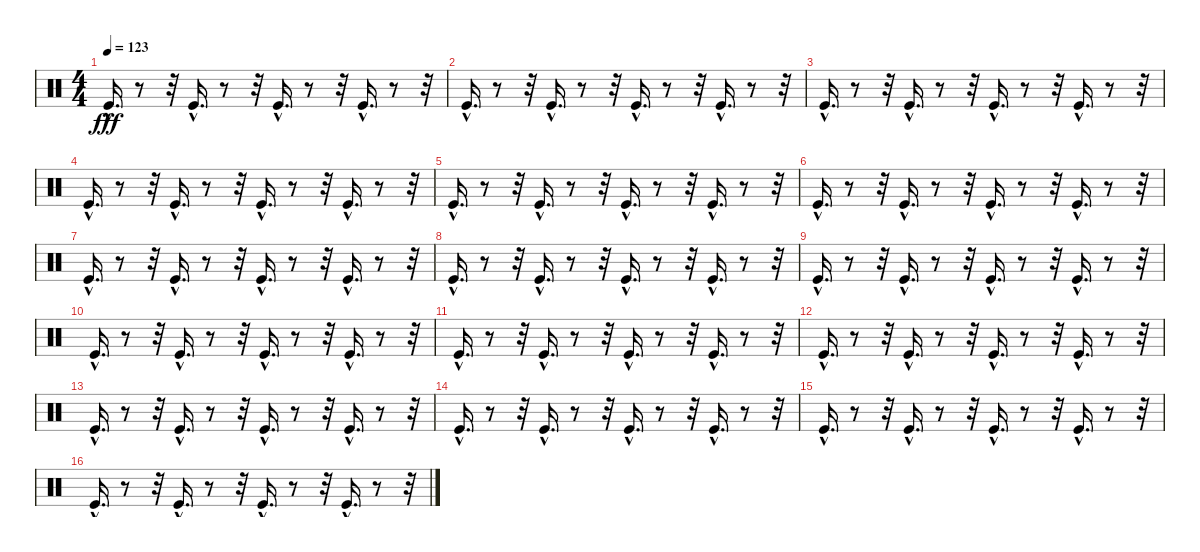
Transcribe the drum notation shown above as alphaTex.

\track "" {instrument percussion}
\staff {score}
\articulation defaults
\ts (4 4)
\tempo 123
\clef neutral
\ks c "Kick (hit)"{hac}.16{d dy fff}
r.8 r.32 "Kick (hit)"{hac}.16{d} r.8 r.32 "Kick (hit)"{hac}.16{d} r.8 r.32 "Kick (hit)"{hac}.16{d} r.8 r.32 |
"Kick (hit)"{hac}.16{d} r.8 r.32 "Kick (hit)"{hac}.16{d} r.8 r.32 "Kick (hit)"{hac}.16{d} r.8 r.32 "Kick (hit)"{hac}.16{d} r.8 r.32 |
"Kick (hit)"{hac}.16{d} r.8 r.32 "Kick (hit)"{hac}.16{d} r.8 r.32 "Kick (hit)"{hac}.16{d} r.8 r.32 "Kick (hit)"{hac}.16{d} r.8 r.32 |
"Kick (hit)"{hac}.16{d} r.8 r.32 "Kick (hit)"{hac}.16{d} r.8 r.32 "Kick (hit)"{hac}.16{d} r.8 r.32 "Kick (hit)"{hac}.16{d} r.8 r.32 |
"Kick (hit)"{hac}.16{d} r.8 r.32 "Kick (hit)"{hac}.16{d} r.8 r.32 "Kick (hit)"{hac}.16{d} r.8 r.32 "Kick (hit)"{hac}.16{d} r.8 r.32 |
"Kick (hit)"{hac}.16{d} r.8 r.32 "Kick (hit)"{hac}.16{d} r.8 r.32 "Kick (hit)"{hac}.16{d} r.8 r.32 "Kick (hit)"{hac}.16{d} r.8 r.32 |
"Kick (hit)"{hac}.16{d} r.8 r.32 "Kick (hit)"{hac}.16{d} r.8 r.32 "Kick (hit)"{hac}.16{d} r.8 r.32 "Kick (hit)"{hac}.16{d} r.8 r.32 |
"Kick (hit)"{hac}.16{d} r.8 r.32 "Kick (hit)"{hac}.16{d} r.8 r.32 "Kick (hit)"{hac}.16{d} r.8 r.32 "Kick (hit)"{hac}.16{d} r.8 r.32 |
"Kick (hit)"{hac}.16{d} r.8 r.32 "Kick (hit)"{hac}.16{d} r.8 r.32 "Kick (hit)"{hac}.16{d} r.8 r.32 "Kick (hit)"{hac}.16{d} r.8 r.32 |
"Kick (hit)"{hac}.16{d} r.8 r.32 "Kick (hit)"{hac}.16{d} r.8 r.32 "Kick (hit)"{hac}.16{d} r.8 r.32 "Kick (hit)"{hac}.16{d} r.8 r.32 |
"Kick (hit)"{hac}.16{d} r.8 r.32 "Kick (hit)"{hac}.16{d} r.8 r.32 "Kick (hit)"{hac}.16{d} r.8 r.32 "Kick (hit)"{hac}.16{d} r.8 r.32 |
"Kick (hit)"{hac}.16{d} r.8 r.32 "Kick (hit)"{hac}.16{d} r.8 r.32 "Kick (hit)"{hac}.16{d} r.8 r.32 "Kick (hit)"{hac}.16{d} r.8 r.32 |
"Kick (hit)"{hac}.16{d} r.8 r.32 "Kick (hit)"{hac}.16{d} r.8 r.32 "Kick (hit)"{hac}.16{d} r.8 r.32 "Kick (hit)"{hac}.16{d} r.8 r.32 |
"Kick (hit)"{hac}.16{d} r.8 r.32 "Kick (hit)"{hac}.16{d} r.8 r.32 "Kick (hit)"{hac}.16{d} r.8 r.32 "Kick (hit)"{hac}.16{d} r.8 r.32 |
"Kick (hit)"{hac}.16{d} r.8 r.32 "Kick (hit)"{hac}.16{d} r.8 r.32 "Kick (hit)"{hac}.16{d} r.8 r.32 "Kick (hit)"{hac}.16{d} r.8 r.32 |
"Kick (hit)"{hac}.16{d} r.8 r.32 "Kick (hit)"{hac}.16{d} r.8 r.32 "Kick (hit)"{hac}.16{d} r.8 r.32 "Kick (hit)"{hac}.16{d} r.8 r.32
